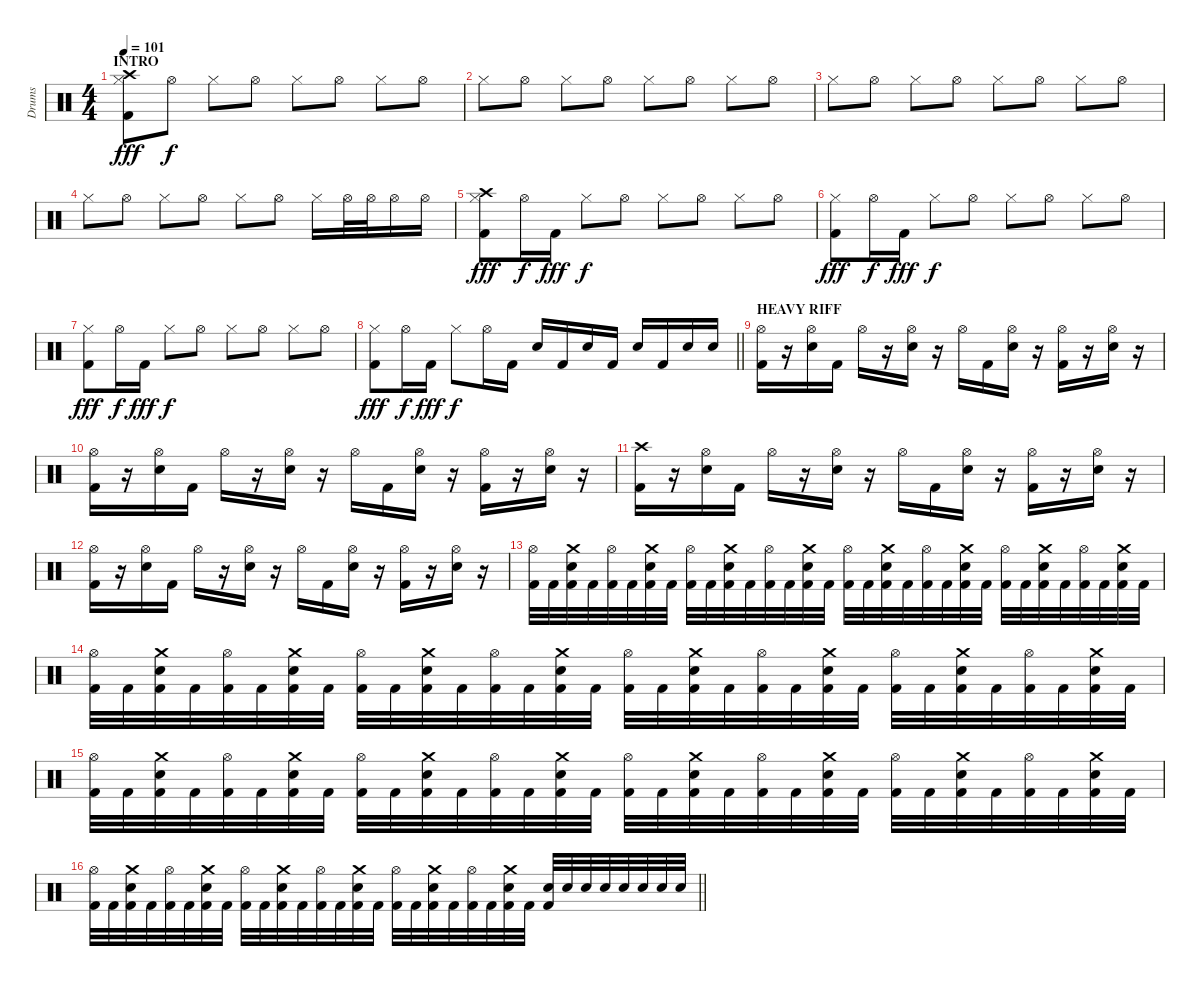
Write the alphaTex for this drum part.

\track ("Drums" "Drums") {instrument percussion}
\staff {score}
\articulation defaults
\ts (4 4)
\section ("" "INTRO")
\tempo 101
\clef neutral
\ks c
("Crash high (hit)" "Hi-Hat (closed)" "Kick (hit) 2").8{dy fff} "Hi-Hat (open)".8{dy f} "Hi-Hat (closed)".8 "Hi-Hat (open)".8 "Hi-Hat (closed)".8 "Hi-Hat (open)".8 "Hi-Hat (closed)".8 "Hi-Hat (open)".8 |
"Hi-Hat (closed)".8 "Hi-Hat (open)".8 "Hi-Hat (closed)".8 "Hi-Hat (open)".8 "Hi-Hat (closed)".8 "Hi-Hat (open)".8 "Hi-Hat (closed)".8 "Hi-Hat (open)".8 |
"Hi-Hat (closed)".8 "Hi-Hat (open)".8 "Hi-Hat (closed)".8 "Hi-Hat (open)".8 "Hi-Hat (closed)".8 "Hi-Hat (open)".8 "Hi-Hat (closed)".8 "Hi-Hat (open)".8 |
"Hi-Hat (closed)".8 "Hi-Hat (open)".8 "Hi-Hat (closed)".8 "Hi-Hat (open)".8 "Hi-Hat (closed)".8 "Hi-Hat (open)".8 "Hi-Hat (closed)".16 "Hi-Hat (open)".32 "Hi-Hat (open)".32 "Hi-Hat (open)".16 "Hi-Hat (open)".16 |
("Crash high (hit)" "Hi-Hat (closed)" "Kick (hit) 2").8{dy fff} "Hi-Hat (open)".16{dy f} "Kick (hit) 2".16{dy fff} "Hi-Hat (closed)".8{dy f} "Hi-Hat (open)".8 "Hi-Hat (closed)".8 "Hi-Hat (open)".8 "Hi-Hat (closed)".8 "Hi-Hat (open)".8 |
("Hi-Hat (closed)" "Kick (hit) 2").8{dy fff} "Hi-Hat (open)".16{dy f} "Kick (hit) 2".16{dy fff} "Hi-Hat (closed)".8{dy f} "Hi-Hat (open)".8 "Hi-Hat (closed)".8 "Hi-Hat (open)".8 "Hi-Hat (closed)".8 "Hi-Hat (open)".8 |
("Hi-Hat (closed)" "Kick (hit) 2").8{dy fff} "Hi-Hat (open)".16{dy f} "Kick (hit) 2".16{dy fff} "Hi-Hat (closed)".8{dy f} "Hi-Hat (open)".8 "Hi-Hat (closed)".8 "Hi-Hat (open)".8 "Hi-Hat (closed)".8 "Hi-Hat (open)".8 |
\barLineRight lightlight
("Hi-Hat (closed)" "Kick (hit) 2").8{dy fff} "Hi-Hat (open)".16{dy f} "Kick (hit) 2".16{dy fff} "Hi-Hat (closed)".8{dy f} "Hi-Hat (open)".16 "Kick (hit) 2".16 "Electric Snare (hit)".16 "Kick (hit) 2".16 "Electric Snare (hit)".16 "Kick (hit) 2".16 "Electric Snare (hit)".16 "Kick (hit) 2".16 "Electric Snare (hit)".16 "Electric Snare (hit)".16 |
\section ("" "HEAVY RIFF")
("Hi-Hat (open)" "Kick (hit) 2").16 r.16 ("Hi-Hat (open)" "Electric Snare (hit)").16 "Kick (hit) 2".16 "Hi-Hat (open)".16 r.16 ("Hi-Hat (open)" "Electric Snare (hit)").16 r.16 "Hi-Hat (open)".16 "Kick (hit) 2".16 ("Hi-Hat (open)" "Electric Snare (hit)").16 r.16 ("Hi-Hat (open)" "Kick (hit) 2").16 r.16 ("Hi-Hat (open)" "Electric Snare (hit)").16 r.16 |
("Hi-Hat (open)" "Kick (hit) 2").16 r.16 ("Hi-Hat (open)" "Electric Snare (hit)").16 "Kick (hit) 2".16 "Hi-Hat (open)".16 r.16 ("Hi-Hat (open)" "Electric Snare (hit)").16 r.16 "Hi-Hat (open)".16 "Kick (hit) 2".16 ("Hi-Hat (open)" "Electric Snare (hit)").16 r.16 ("Hi-Hat (open)" "Kick (hit) 2").16 r.16 ("Hi-Hat (open)" "Electric Snare (hit)").16 r.16 |
("Crash high (hit)" "Kick (hit) 2").16 r.16 ("Hi-Hat (open)" "Electric Snare (hit)").16 "Kick (hit) 2".16 "Hi-Hat (open)".16 r.16 ("Hi-Hat (open)" "Electric Snare (hit)").16 r.16 "Hi-Hat (open)".16 "Kick (hit) 2".16 ("Hi-Hat (open)" "Electric Snare (hit)").16 r.16 ("Hi-Hat (open)" "Kick (hit) 2").16 r.16 ("Hi-Hat (open)" "Electric Snare (hit)").16 r.16 |
("Hi-Hat (open)" "Kick (hit) 2").16 r.16 ("Hi-Hat (open)" "Electric Snare (hit)").16 "Kick (hit) 2".16 "Hi-Hat (open)".16 r.16 ("Hi-Hat (open)" "Electric Snare (hit)").16 r.16 "Hi-Hat (open)".16 "Kick (hit) 2".16 ("Hi-Hat (open)" "Electric Snare (hit)").16 r.16 ("Hi-Hat (open)" "Kick (hit) 2").16 r.16 ("Hi-Hat (open)" "Electric Snare (hit)").16 r.16 |
("Hi-Hat (open)" "Kick (hit) 2").32 "Kick (hit) 2".32 ("Crash medium (hit)" "Electric Snare (hit)" "Kick (hit) 2").32 "Kick (hit) 2".32 ("Hi-Hat (open)" "Kick (hit) 2").32 "Kick (hit) 2".32 ("Crash medium (hit)" "Electric Snare (hit)" "Kick (hit) 2").32 "Kick (hit) 2".32 ("Hi-Hat (open)" "Kick (hit) 2").32 "Kick (hit) 2".32 ("Crash medium (hit)" "Electric Snare (hit)" "Kick (hit) 2").32 "Kick (hit) 2".32 ("Hi-Hat (open)" "Kick (hit) 2").32 "Kick (hit) 2".32 ("Crash medium (hit)" "Electric Snare (hit)" "Kick (hit) 2").32 "Kick (hit) 2".32 ("Hi-Hat (open)" "Kick (hit) 2").32 "Kick (hit) 2".32 ("Crash medium (hit)" "Electric Snare (hit)" "Kick (hit) 2").32 "Kick (hit) 2".32 ("Hi-Hat (open)" "Kick (hit) 2").32 "Kick (hit) 2".32 ("Crash medium (hit)" "Electric Snare (hit)" "Kick (hit) 2").32 "Kick (hit) 2".32 ("Hi-Hat (open)" "Kick (hit) 2").32 "Kick (hit) 2".32 ("Crash medium (hit)" "Electric Snare (hit)" "Kick (hit) 2").32 "Kick (hit) 2".32 ("Hi-Hat (open)" "Kick (hit) 2").32 "Kick (hit) 2".32 ("Crash medium (hit)" "Electric Snare (hit)" "Kick (hit) 2").32 "Kick (hit) 2".32 |
("Hi-Hat (open)" "Kick (hit) 2").32 "Kick (hit) 2".32 ("Crash medium (hit)" "Electric Snare (hit)" "Kick (hit) 2").32 "Kick (hit) 2".32 ("Hi-Hat (open)" "Kick (hit) 2").32 "Kick (hit) 2".32 ("Crash medium (hit)" "Electric Snare (hit)" "Kick (hit) 2").32 "Kick (hit) 2".32 ("Hi-Hat (open)" "Kick (hit) 2").32 "Kick (hit) 2".32 ("Crash medium (hit)" "Electric Snare (hit)" "Kick (hit) 2").32 "Kick (hit) 2".32 ("Hi-Hat (open)" "Kick (hit) 2").32 "Kick (hit) 2".32 ("Crash medium (hit)" "Electric Snare (hit)" "Kick (hit) 2").32 "Kick (hit) 2".32 ("Hi-Hat (open)" "Kick (hit) 2").32 "Kick (hit) 2".32 ("Crash medium (hit)" "Electric Snare (hit)" "Kick (hit) 2").32 "Kick (hit) 2".32 ("Hi-Hat (open)" "Kick (hit) 2").32 "Kick (hit) 2".32 ("Crash medium (hit)" "Electric Snare (hit)" "Kick (hit) 2").32 "Kick (hit) 2".32 ("Hi-Hat (open)" "Kick (hit) 2").32 "Kick (hit) 2".32 ("Crash medium (hit)" "Electric Snare (hit)" "Kick (hit) 2").32 "Kick (hit) 2".32 ("Hi-Hat (open)" "Kick (hit) 2").32 "Kick (hit) 2".32 ("Crash medium (hit)" "Electric Snare (hit)" "Kick (hit) 2").32 "Kick (hit) 2".32 |
("Hi-Hat (open)" "Kick (hit) 2").32 "Kick (hit) 2".32 ("Crash medium (hit)" "Electric Snare (hit)" "Kick (hit) 2").32 "Kick (hit) 2".32 ("Hi-Hat (open)" "Kick (hit) 2").32 "Kick (hit) 2".32 ("Crash medium (hit)" "Electric Snare (hit)" "Kick (hit) 2").32 "Kick (hit) 2".32 ("Hi-Hat (open)" "Kick (hit) 2").32 "Kick (hit) 2".32 ("Crash medium (hit)" "Electric Snare (hit)" "Kick (hit) 2").32 "Kick (hit) 2".32 ("Hi-Hat (open)" "Kick (hit) 2").32 "Kick (hit) 2".32 ("Crash medium (hit)" "Electric Snare (hit)" "Kick (hit) 2").32 "Kick (hit) 2".32 ("Hi-Hat (open)" "Kick (hit) 2").32 "Kick (hit) 2".32 ("Crash medium (hit)" "Electric Snare (hit)" "Kick (hit) 2").32 "Kick (hit) 2".32 ("Hi-Hat (open)" "Kick (hit) 2").32 "Kick (hit) 2".32 ("Crash medium (hit)" "Electric Snare (hit)" "Kick (hit) 2").32 "Kick (hit) 2".32 ("Hi-Hat (open)" "Kick (hit) 2").32 "Kick (hit) 2".32 ("Crash medium (hit)" "Electric Snare (hit)" "Kick (hit) 2").32 "Kick (hit) 2".32 ("Hi-Hat (open)" "Kick (hit) 2").32 "Kick (hit) 2".32 ("Crash medium (hit)" "Electric Snare (hit)" "Kick (hit) 2").32 "Kick (hit) 2".32 |
\barLineRight lightlight
("Hi-Hat (open)" "Kick (hit) 2").32 "Kick (hit) 2".32 ("Crash medium (hit)" "Electric Snare (hit)" "Kick (hit) 2").32 "Kick (hit) 2".32 ("Hi-Hat (open)" "Kick (hit) 2").32 "Kick (hit) 2".32 ("Crash medium (hit)" "Electric Snare (hit)" "Kick (hit) 2").32 "Kick (hit) 2".32 ("Hi-Hat (open)" "Kick (hit) 2").32 "Kick (hit) 2".32 ("Crash medium (hit)" "Electric Snare (hit)" "Kick (hit) 2").32 "Kick (hit) 2".32 ("Hi-Hat (open)" "Kick (hit) 2").32 "Kick (hit) 2".32 ("Crash medium (hit)" "Electric Snare (hit)" "Kick (hit) 2").32 "Kick (hit) 2".32 ("Hi-Hat (open)" "Kick (hit) 2").32 "Kick (hit) 2".32 ("Crash medium (hit)" "Electric Snare (hit)" "Kick (hit) 2").32 "Kick (hit) 2".32 ("Hi-Hat (open)" "Kick (hit) 2").32 "Kick (hit) 2".32 ("Crash medium (hit)" "Electric Snare (hit)" "Kick (hit) 2").32 "Kick (hit) 2".32 ("Electric Snare (hit)" "Kick (hit) 2").32 "Electric Snare (hit)".32 "Electric Snare (hit)".32 "Electric Snare (hit)".32 "Electric Snare (hit)".32 "Electric Snare (hit)".32 "Electric Snare (hit)".32 "Electric Snare (hit)".32
